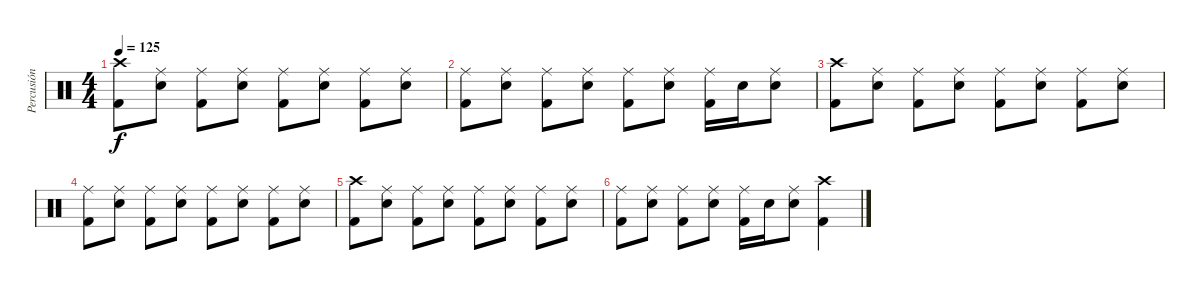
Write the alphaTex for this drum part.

\track ("Percusión" "Percusión") {instrument percussion}
\staff {score}
\articulation defaults
\ts (4 4)
\tempo 125
\clef neutral
\ks c
("Crash high (hit)" "Kick (hit) 2").8{dy f} ("Ride (middle)" "Electric Snare (hit)").8 ("Ride (middle)" "Kick (hit) 2").8 ("Ride (middle)" "Electric Snare (hit)").8 ("Ride (middle)" "Kick (hit) 2").8 ("Ride (middle)" "Electric Snare (hit)").8 ("Ride (middle)" "Kick (hit) 2").8 ("Ride (middle)" "Electric Snare (hit)").8 |
("Ride (middle)" "Kick (hit) 2").8 ("Ride (middle)" "Electric Snare (hit)").8 ("Ride (middle)" "Kick (hit) 2").8 ("Ride (middle)" "Electric Snare (hit)").8 ("Ride (middle)" "Kick (hit) 2").8 ("Ride (middle)" "Electric Snare (hit)").8 ("Ride (middle)" "Kick (hit) 2").16 "Electric Snare (hit)".16 ("Ride (middle)" "Electric Snare (hit)").8 |
("Crash high (hit)" "Kick (hit) 2").8 ("Ride (middle)" "Electric Snare (hit)").8 ("Ride (middle)" "Kick (hit) 2").8 ("Ride (middle)" "Electric Snare (hit)").8 ("Ride (middle)" "Kick (hit) 2").8 ("Ride (middle)" "Electric Snare (hit)").8 ("Ride (middle)" "Kick (hit) 2").8 ("Ride (middle)" "Electric Snare (hit)").8 |
("Ride (middle)" "Kick (hit) 2").8 ("Ride (middle)" "Electric Snare (hit)").8 ("Ride (middle)" "Kick (hit) 2").8 ("Ride (middle)" "Electric Snare (hit)").8 ("Ride (middle)" "Kick (hit) 2").8 ("Ride (middle)" "Electric Snare (hit)").8 ("Ride (middle)" "Kick (hit) 2").8 ("Ride (middle)" "Electric Snare (hit)").8 |
("Crash high (hit)" "Kick (hit) 2").8 ("Ride (middle)" "Electric Snare (hit)").8 ("Ride (middle)" "Kick (hit) 2").8 ("Ride (middle)" "Electric Snare (hit)").8 ("Ride (middle)" "Kick (hit) 2").8 ("Ride (middle)" "Electric Snare (hit)").8 ("Ride (middle)" "Kick (hit) 2").8 ("Ride (middle)" "Electric Snare (hit)").8 |
("Ride (middle)" "Kick (hit) 2").8 ("Ride (middle)" "Electric Snare (hit)").8 ("Ride (middle)" "Kick (hit) 2").8 ("Ride (middle)" "Electric Snare (hit)").8 ("Ride (middle)" "Kick (hit) 2").16 "Electric Snare (hit)".16 ("Ride (middle)" "Electric Snare (hit)").8 ("Crash high (hit)" "Kick (hit) 2").4
